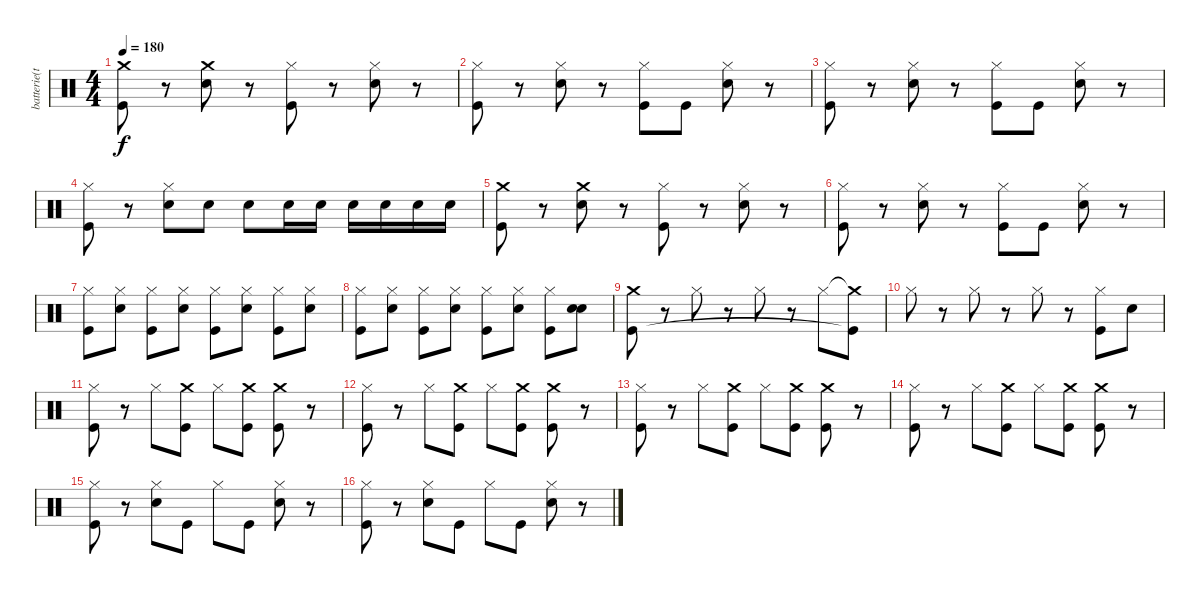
\track ("batterie(topper)" "batterie(t") {instrument percussion}
\staff {score}
\articulation defaults
\ts (4 4)
\tempo 180
\clef neutral
\ks c
("Crash medium (hit)" "Kick (hit)").8{dy f} r.8 ("Crash medium (hit)" "Snare (hit) 2").8 r.8 ("Hi-Hat (closed)" "Kick (hit)").8 r.8 ("Hi-Hat (closed)" "Snare (hit) 2").8 r.8 |
("Hi-Hat (closed)" "Kick (hit)").8 r.8 ("Hi-Hat (closed)" "Snare (hit) 2").8 r.8 ("Hi-Hat (closed)" "Kick (hit)").8 "Kick (hit)".8 ("Hi-Hat (closed)" "Snare (hit) 2").8 r.8 |
("Hi-Hat (closed)" "Kick (hit)").8 r.8 ("Hi-Hat (closed)" "Snare (hit) 2").8 r.8 ("Hi-Hat (closed)" "Kick (hit)").8 "Kick (hit)".8 ("Hi-Hat (closed)" "Snare (hit) 2").8 r.8 |
("Hi-Hat (closed)" "Kick (hit)").8 r.8 ("Hi-Hat (closed)" "Snare (hit) 2").8 "Snare (hit) 2".8 "Snare (hit) 2".8 "Snare (hit) 2".16 "Snare (hit) 2".16 "Snare (hit) 2".16 "Snare (hit) 2".16 "Snare (hit) 2".16 "Snare (hit) 2".16 |
("Crash medium (hit)" "Kick (hit)").8 r.8 ("Crash medium (hit)" "Snare (hit) 2").8 r.8 ("Hi-Hat (closed)" "Kick (hit)").8 r.8 ("Hi-Hat (closed)" "Snare (hit) 2").8 r.8 |
("Hi-Hat (closed)" "Kick (hit)").8 r.8 ("Hi-Hat (closed)" "Snare (hit) 2").8 r.8 ("Hi-Hat (closed)" "Kick (hit)").8 "Kick (hit)".8 ("Hi-Hat (closed)" "Snare (hit) 2").8 r.8 |
("Hi-Hat (closed)" "Kick (hit)").8 ("Hi-Hat (closed)" "Snare (hit) 2").8 ("Hi-Hat (closed)" "Kick (hit)").8 ("Hi-Hat (closed)" "Snare (hit) 2").8 ("Hi-Hat (closed)" "Kick (hit)").8 ("Hi-Hat (closed)" "Snare (hit) 2").8 ("Hi-Hat (closed)" "Kick (hit)").8 ("Hi-Hat (closed)" "Snare (hit) 2").8 |
("Hi-Hat (closed)" "Kick (hit)").8 ("Hi-Hat (closed)" "Snare (hit) 2").8 ("Hi-Hat (closed)" "Kick (hit)").8 ("Hi-Hat (closed)" "Snare (hit) 2").8 ("Hi-Hat (closed)" "Kick (hit)").8 ("Hi-Hat (closed)" "Snare (hit) 2").8 ("Hi-Hat (closed)" "Kick (hit)").8 ("Snare (hit) 2" "Snare (hit) 2").8 |
("Crash medium (hit)" "Kick (hit)").8 r.8 "Hi-Hat (closed)".8 r.8 "Hi-Hat (closed)".8 r.8 "Hi-Hat (closed)".8 ("Crash medium (hit)"{t} "Kick (hit)"{t}).8 |
"Hi-Hat (closed)".8 r.8 "Hi-Hat (closed)".8 r.8 "Hi-Hat (closed)".8 r.8 ("Hi-Hat (closed)" "Kick (hit)").8 "Snare (hit) 2".8 |
("Hi-Hat (closed)" "Kick (hit)").8 r.8 "Hi-Hat (closed)".8 ("Crash medium (hit)" "Kick (hit)").8 "Hi-Hat (closed)".8 ("Crash medium (hit)" "Kick (hit)").8 ("Crash medium (hit)" "Kick (hit)").8 r.8 |
("Hi-Hat (closed)" "Kick (hit)").8 r.8 "Hi-Hat (closed)".8 ("Crash medium (hit)" "Kick (hit)").8 "Hi-Hat (closed)".8 ("Crash medium (hit)" "Kick (hit)").8 ("Crash medium (hit)" "Kick (hit)").8 r.8 |
("Hi-Hat (closed)" "Kick (hit)").8 r.8 "Hi-Hat (closed)".8 ("Crash medium (hit)" "Kick (hit)").8 "Hi-Hat (closed)".8 ("Crash medium (hit)" "Kick (hit)").8 ("Crash medium (hit)" "Kick (hit)").8 r.8 |
("Hi-Hat (closed)" "Kick (hit)").8 r.8 "Hi-Hat (closed)".8 ("Crash medium (hit)" "Kick (hit)").8 "Hi-Hat (closed)".8 ("Crash medium (hit)" "Kick (hit)").8 ("Crash medium (hit)" "Kick (hit)").8 r.8 |
("Hi-Hat (closed)" "Kick (hit)").8 r.8 ("Hi-Hat (closed)" "Snare (hit) 2").8 "Kick (hit)".8 "Hi-Hat (closed)".8 "Kick (hit)".8 ("Hi-Hat (closed)" "Snare (hit) 2").8 r.8 |
("Hi-Hat (closed)" "Kick (hit)").8 r.8 ("Hi-Hat (closed)" "Snare (hit) 2").8 "Kick (hit)".8 "Hi-Hat (closed)".8 "Kick (hit)".8 ("Hi-Hat (closed)" "Snare (hit) 2").8 r.8
